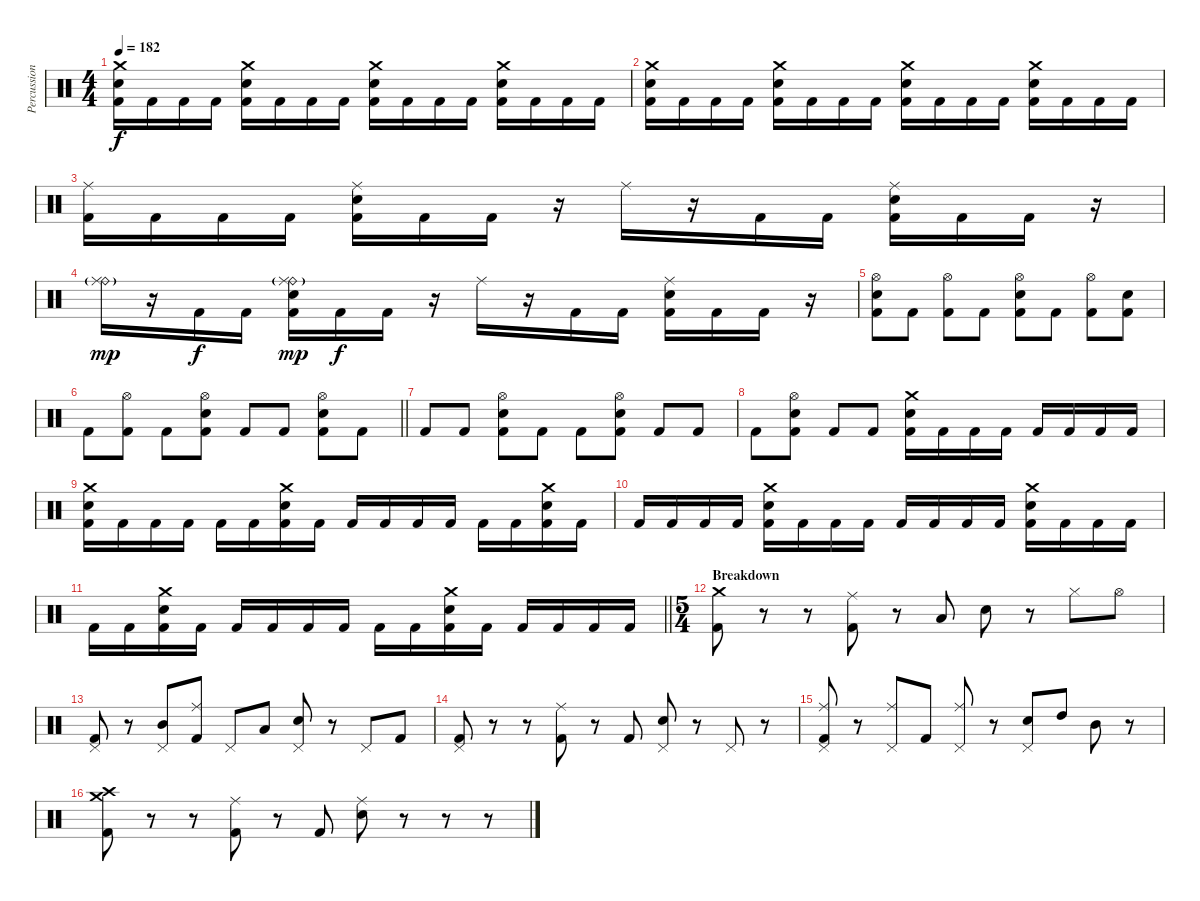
\track ("Percussion" "Percussion") {instrument percussion}
\staff {score}
\articulation defaults
\ts (4 4)
\tempo 182
\clef neutral
\ks c
("Crash medium (hit)" "Electric Snare (hit)" "Kick (hit) 2").16{dy f} "Kick (hit) 2".16 "Kick (hit) 2".16 "Kick (hit) 2".16 ("Crash medium (hit)" "Electric Snare (hit)" "Kick (hit) 2").16 "Kick (hit) 2".16 "Kick (hit) 2".16 "Kick (hit) 2".16 ("Crash medium (hit)" "Electric Snare (hit)" "Kick (hit) 2").16 "Kick (hit) 2".16 "Kick (hit) 2".16 "Kick (hit) 2".16 ("Crash medium (hit)" "Electric Snare (hit)" "Kick (hit) 2").16 "Kick (hit) 2".16 "Kick (hit) 2".16 "Kick (hit) 2".16 |
("Crash medium (hit)" "Electric Snare (hit)" "Kick (hit) 2").16 "Kick (hit) 2".16 "Kick (hit) 2".16 "Kick (hit) 2".16 ("Crash medium (hit)" "Electric Snare (hit)" "Kick (hit) 2").16 "Kick (hit) 2".16 "Kick (hit) 2".16 "Kick (hit) 2".16 ("Crash medium (hit)" "Electric Snare (hit)" "Kick (hit) 2").16 "Kick (hit) 2".16 "Kick (hit) 2".16 "Kick (hit) 2".16 ("Crash medium (hit)" "Electric Snare (hit)" "Kick (hit) 2").16 "Kick (hit) 2".16 "Kick (hit) 2".16 "Kick (hit) 2".16 |
("Ride (middle)" "Kick (hit) 2").16 "Kick (hit) 2".16 "Kick (hit) 2".16 "Kick (hit) 2".16 ("Ride (middle)" "Electric Snare (hit)" "Kick (hit) 2").16 "Kick (hit) 2".16 "Kick (hit) 2".16 r.16 "Ride (middle)".16 r.16 "Kick (hit) 2".16 "Kick (hit) 2".16 ("Ride (middle)" "Electric Snare (hit)" "Kick (hit) 2").16 "Kick (hit) 2".16 "Kick (hit) 2".16 r.16 |
("Ride (bell)"{g} "Ride (middle)").16{dy mp} r.16 "Kick (hit) 2".16{dy f} "Kick (hit) 2".16 ("Ride (bell)"{g} "Ride (middle)" "Electric Snare (hit)" "Kick (hit) 2").16{dy mp} "Kick (hit) 2".16{dy f} "Kick (hit) 2".16 r.16 "Ride (middle)".16 r.16 "Kick (hit) 2".16 "Kick (hit) 2".16 ("Ride (middle)" "Electric Snare (hit)" "Kick (hit) 2").16 "Kick (hit) 2".16 "Kick (hit) 2".16 r.16 |
("Hi-Hat (open)" "Electric Snare (hit)" "Kick (hit) 2").8 "Kick (hit) 2".8 ("Hi-Hat (open)" "Kick (hit) 2").8 "Kick (hit) 2".8 ("Hi-Hat (open)" "Electric Snare (hit)" "Kick (hit) 2").8 "Kick (hit) 2".8 ("Hi-Hat (open)" "Kick (hit) 2").8 ("Electric Snare (hit)" "Kick (hit) 2").8 |
\barLineRight lightlight "Kick (hit) 2".8
("Hi-Hat (open)" "Kick (hit) 2").8 "Kick (hit) 2".8 ("Hi-Hat (open)" "Electric Snare (hit)" "Kick (hit) 2").8 "Kick (hit) 2".8 "Kick (hit) 2".8 ("Hi-Hat (open)" "Electric Snare (hit)" "Kick (hit) 2").8 "Kick (hit) 2".8 |
"Kick (hit) 2".8 "Kick (hit) 2".8 ("Hi-Hat (open)" "Electric Snare (hit)" "Kick (hit) 2").8 "Kick (hit) 2".8 "Kick (hit) 2".8 ("Hi-Hat (open)" "Electric Snare (hit)" "Kick (hit) 2").8 "Kick (hit) 2".8 "Kick (hit) 2".8 |
"Kick (hit) 2".8 ("Hi-Hat (open)" "Electric Snare (hit)" "Kick (hit) 2").8 "Kick (hit) 2".8 "Kick (hit) 2".8 ("Crash medium (hit)" "Electric Snare (hit)" "Kick (hit) 2").16 "Kick (hit) 2".16 "Kick (hit) 2".16 "Kick (hit) 2".16 "Kick (hit) 2".16 "Kick (hit) 2".16 "Kick (hit) 2".16 "Kick (hit) 2".16 |
("Crash medium (hit)" "Electric Snare (hit)" "Kick (hit) 2").16 "Kick (hit) 2".16 "Kick (hit) 2".16 "Kick (hit) 2".16 "Kick (hit) 2".16 "Kick (hit) 2".16 ("Crash medium (hit)" "Electric Snare (hit)" "Kick (hit) 2").16 "Kick (hit) 2".16 "Kick (hit) 2".16 "Kick (hit) 2".16 "Kick (hit) 2".16 "Kick (hit) 2".16 "Kick (hit) 2".16 "Kick (hit) 2".16 ("Crash medium (hit)" "Electric Snare (hit)" "Kick (hit) 2").16 "Kick (hit) 2".16 |
"Kick (hit) 2".16 "Kick (hit) 2".16 "Kick (hit) 2".16 "Kick (hit) 2".16 ("Crash medium (hit)" "Electric Snare (hit)" "Kick (hit) 2").16 "Kick (hit) 2".16 "Kick (hit) 2".16 "Kick (hit) 2".16 "Kick (hit) 2".16 "Kick (hit) 2".16 "Kick (hit) 2".16 "Kick (hit) 2".16 ("Crash medium (hit)" "Electric Snare (hit)" "Kick (hit) 2").16 "Kick (hit) 2".16 "Kick (hit) 2".16 "Kick (hit) 2".16 |
\barLineRight lightlight "Kick (hit) 2".16 "Kick (hit) 2".16
("Crash medium (hit)" "Electric Snare (hit)" "Kick (hit) 2").16 "Kick (hit) 2".16 "Kick (hit) 2".16 "Kick (hit) 2".16 "Kick (hit) 2".16 "Kick (hit) 2".16 "Kick (hit) 2".16 "Kick (hit) 2".16 ("Crash medium (hit)" "Electric Snare (hit)" "Kick (hit) 2").16 "Kick (hit) 2".16 "Kick (hit) 2".16 "Kick (hit) 2".16 "Kick (hit) 2".16 "Kick (hit) 2".16 |
\ts (5 4)
\section ("" "Breakdown")
("Crash medium (hit)" "Kick (hit) 2").8 r.8 r.8 ("Ride (middle)" "Kick (hit) 2").8 r.8 "Low Tom (hit)".8 "Electric Snare (hit)".8 r.8 "Hi-Hat (closed)".8 "Hi-Hat (open)".8 |
("Pedal Hi-Hat (hit)" "Kick (hit) 2").8 r.8 ("Pedal Hi-Hat (hit)" "Mid Tom (hit)").8 ("Ride (middle)" "Kick (hit) 2").8 "Pedal Hi-Hat (hit)".8 "Low Tom (hit)".8 ("Pedal Hi-Hat (hit)" "Electric Snare (hit)").8 r.8 "Pedal Hi-Hat (hit)".8 "Kick (hit) 2".8 |
("Pedal Hi-Hat (hit)" "Kick (hit) 2").8 r.8 r.8 ("Ride (middle)" "Kick (hit) 2").8 r.8 "Kick (hit) 2".8 ("Pedal Hi-Hat (hit)" "Electric Snare (hit)").8 r.8 "Pedal Hi-Hat (hit)".8 r.8 |
("Ride (middle)" "Pedal Hi-Hat (hit)" "Kick (hit) 2").8 r.8 ("Ride (middle)" "Pedal Hi-Hat (hit)").8 "Kick (hit) 2".8 ("Ride (middle)" "Pedal Hi-Hat (hit)").8 r.8 ("Pedal Hi-Hat (hit)" "Electric Snare (hit)").8 "High Tom (hit)".8 "Mid Tom (hit)".8 r.8 |
("Crash high (hit)" "Crash medium (hit)" "Kick (hit) 2").8 r.8 r.8 ("Ride (middle)" "Kick (hit) 2").8 r.8 "Kick (hit) 2".8 ("Ride (middle)" "Electric Snare (hit)").8 r.8 r.8 r.8
